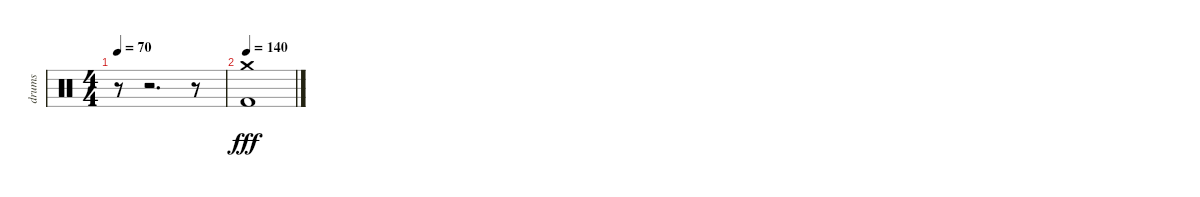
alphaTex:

\track ("drums" "drums") {instrument percussion}
\staff {score}
\articulation defaults
\ts (4 4)
\tempo 70
\clef neutral
\ks c
r.8{dy fff} r.2{d} r.8 |
\tempo 140
("Crash medium (hit)" "Kick (hit) 2").1
